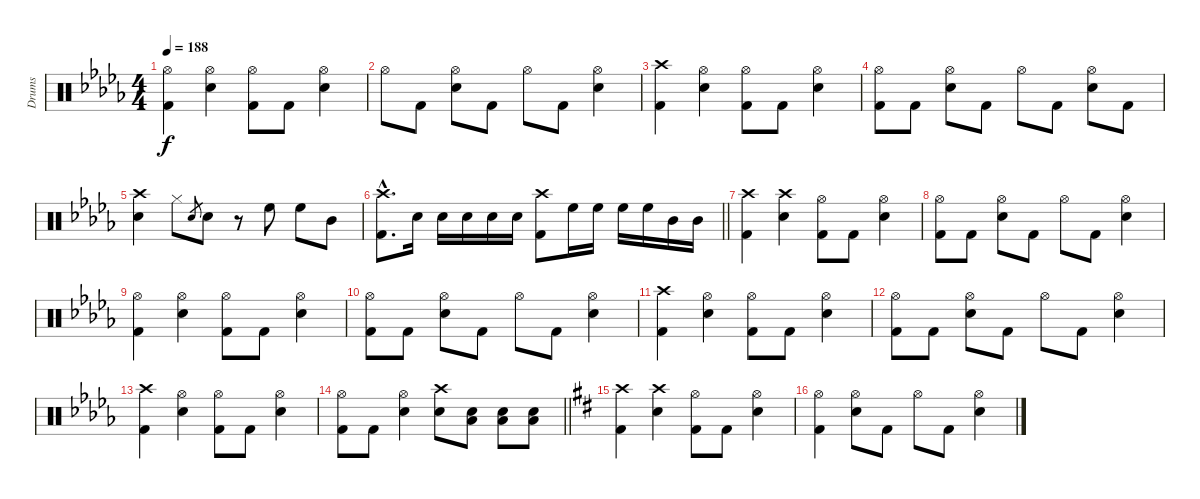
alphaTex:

\track ("Drums" "Drums") {instrument percussion}
\staff {score}
\articulation defaults
\ts (4 4)
\tempo 188
\clef neutral
\ks bbminor
("Hi-Hat (open)" "Kick (hit) 2").4{dy f} ("Hi-Hat (open)" "Electric Snare (hit)").4 ("Hi-Hat (open)" "Kick (hit) 2").8 "Kick (hit) 2".8 ("Hi-Hat (open)" "Electric Snare (hit)").4 |
"Hi-Hat (open)".8 "Kick (hit) 2".8 ("Hi-Hat (open)" "Electric Snare (hit)").8 "Kick (hit) 2".8 "Hi-Hat (open)".8 "Kick (hit) 2".8 ("Hi-Hat (open)" "Electric Snare (hit)").4 |
("Crash high (hit)" "Kick (hit) 2").4 ("Hi-Hat (open)" "Electric Snare (hit)").4 ("Hi-Hat (open)" "Kick (hit) 2").8 "Kick (hit) 2".8 ("Hi-Hat (open)" "Electric Snare (hit)").4 |
("Hi-Hat (open)" "Kick (hit) 2").8 "Kick (hit) 2".8 ("Hi-Hat (open)" "Electric Snare (hit)").8 "Kick (hit) 2".8 "Hi-Hat (open)".8 "Kick (hit) 2".8 ("Hi-Hat (open)" "Electric Snare (hit)").8 "Kick (hit) 2".8 |
("Crash high (hit)" "Electric Snare (hit)").4 "Hi-Hat (closed)".8 "Electric Snare (hit)".8{gr} "Electric Snare (hit)".8 r.8 "High Floor Tom (hit)".8 "High Floor Tom (hit)".8 "Mid Tom (hit)".8 |
\barLineRight lightlight
("Crash high (hit)"{hac} "Kick (hit) 2"{hac}).8{d} "Electric Snare (hit)".16 "Electric Snare (hit)".16 "Electric Snare (hit)".16 "Electric Snare (hit)".16 "Electric Snare (hit)".16 ("Crash high (hit)" "Kick (hit) 2").8 "High Floor Tom (hit)".16 "High Floor Tom (hit)".16 "High Floor Tom (hit)".16 "High Floor Tom (hit)".16 "Mid Tom (hit)".16 "Mid Tom (hit)".16 |
("Crash high (hit)" "Kick (hit) 2").4 ("Crash high (hit)" "Electric Snare (hit)").4 ("Hi-Hat (open)" "Kick (hit) 2").8 "Kick (hit) 2".8 ("Hi-Hat (open)" "Electric Snare (hit)").4 |
("Hi-Hat (open)" "Kick (hit) 2").8 "Kick (hit) 2".8 ("Hi-Hat (open)" "Electric Snare (hit)").8 "Kick (hit) 2".8 "Hi-Hat (open)".8 "Kick (hit) 2".8 ("Hi-Hat (open)" "Electric Snare (hit)").4 |
("Hi-Hat (open)" "Kick (hit) 2").4 ("Hi-Hat (open)" "Electric Snare (hit)").4 ("Hi-Hat (open)" "Kick (hit) 2").8 "Kick (hit) 2".8 ("Hi-Hat (open)" "Electric Snare (hit)").4 |
("Hi-Hat (open)" "Kick (hit) 2").8 "Kick (hit) 2".8 ("Hi-Hat (open)" "Electric Snare (hit)").8 "Kick (hit) 2".8 "Hi-Hat (open)".8 "Kick (hit) 2".8 ("Hi-Hat (open)" "Electric Snare (hit)").4 |
("Crash high (hit)" "Kick (hit) 2").4 ("Hi-Hat (open)" "Electric Snare (hit)").4 ("Hi-Hat (open)" "Kick (hit) 2").8 "Kick (hit) 2".8 ("Hi-Hat (open)" "Electric Snare (hit)").4 |
("Hi-Hat (open)" "Kick (hit) 2").8 "Kick (hit) 2".8 ("Hi-Hat (open)" "Electric Snare (hit)").8 "Kick (hit) 2".8 "Hi-Hat (open)".8 "Kick (hit) 2".8 ("Hi-Hat (open)" "Electric Snare (hit)").4 |
("Crash high (hit)" "Kick (hit) 2").4 ("Hi-Hat (open)" "Electric Snare (hit)").4 ("Hi-Hat (open)" "Kick (hit) 2").8 "Kick (hit) 2".8 ("Hi-Hat (open)" "Electric Snare (hit)").4 |
\barLineRight lightlight
("Hi-Hat (open)" "Kick (hit) 2").8 "Kick (hit) 2".8 ("Hi-Hat (open)" "Electric Snare (hit)").4 ("Crash high (hit)" "Electric Snare (hit)").8 ("Electric Snare (hit)" "Low Floor Tom (hit)").8 ("Electric Snare (hit)" "Low Floor Tom (hit)").8 ("Electric Snare (hit)" "Low Floor Tom (hit)").8 |
\ks bminor
("Crash high (hit)" "Kick (hit) 2").4 ("Crash high (hit)" "Electric Snare (hit)").4 ("Hi-Hat (open)" "Kick (hit) 2").8 "Kick (hit) 2".8 ("Hi-Hat (open)" "Electric Snare (hit)").4 |
("Hi-Hat (open)" "Kick (hit) 2").4 ("Hi-Hat (open)" "Electric Snare (hit)").8 "Kick (hit) 2".8 "Hi-Hat (open)".8 "Kick (hit) 2".8 ("Hi-Hat (open)" "Electric Snare (hit)").4
